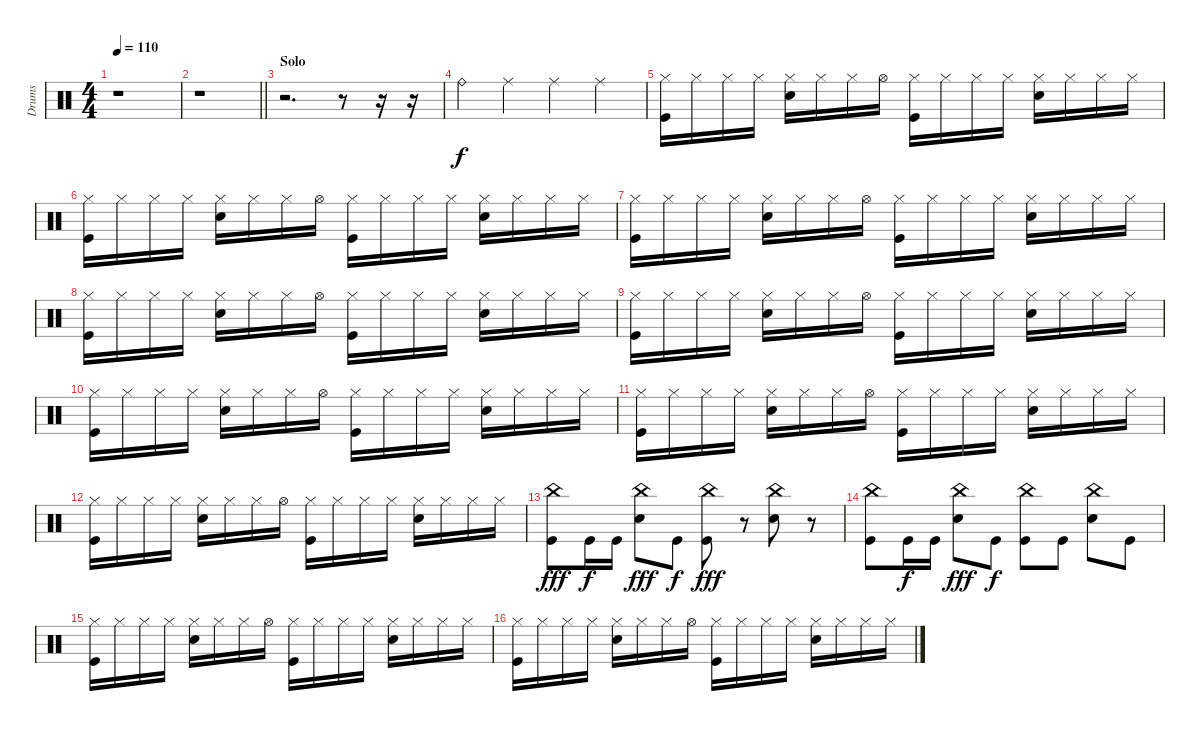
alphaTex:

\track ("Drums" "Drums") {instrument percussion}
\staff {score}
\articulation defaults
\ts (4 4)
\tempo 110
\clef neutral
\ks c
r.1{dy f} |
\barLineRight lightlight
r.1 |
\section ("" "Solo")
r.2{d} r.8 r.16 r.16 |
"Ride (bell)".4 "Ride (middle)".4 "Ride (middle)".4 "Ride (middle)".4 |
("Hi-Hat (closed)" "Kick (hit)").16 "Hi-Hat (closed)".16 "Hi-Hat (closed)".16 "Hi-Hat (closed)".16 ("Hi-Hat (closed)" "Snare (hit) 2").16 "Hi-Hat (closed)".16 "Hi-Hat (closed)".16 "Hi-Hat (open)".16 ("Hi-Hat (closed)" "Kick (hit)").16 "Hi-Hat (closed)".16 "Hi-Hat (closed)".16 "Hi-Hat (closed)".16 ("Hi-Hat (closed)" "Snare (hit) 2").16 "Hi-Hat (closed)".16 "Hi-Hat (closed)".16 "Hi-Hat (closed)".16 |
("Hi-Hat (closed)" "Kick (hit)").16 "Hi-Hat (closed)".16 "Hi-Hat (closed)".16 "Hi-Hat (closed)".16 ("Hi-Hat (closed)" "Snare (hit) 2").16 "Hi-Hat (closed)".16 "Hi-Hat (closed)".16 "Hi-Hat (open)".16 ("Hi-Hat (closed)" "Kick (hit)").16 "Hi-Hat (closed)".16 "Hi-Hat (closed)".16 "Hi-Hat (closed)".16 ("Hi-Hat (closed)" "Snare (hit) 2").16 "Hi-Hat (closed)".16 "Hi-Hat (closed)".16 "Hi-Hat (closed)".16 |
("Hi-Hat (closed)" "Kick (hit)").16 "Hi-Hat (closed)".16 "Hi-Hat (closed)".16 "Hi-Hat (closed)".16 ("Hi-Hat (closed)" "Snare (hit) 2").16 "Hi-Hat (closed)".16 "Hi-Hat (closed)".16 "Hi-Hat (open)".16 ("Hi-Hat (closed)" "Kick (hit)").16 "Hi-Hat (closed)".16 "Hi-Hat (closed)".16 "Hi-Hat (closed)".16 ("Hi-Hat (closed)" "Snare (hit) 2").16 "Hi-Hat (closed)".16 "Hi-Hat (closed)".16 "Hi-Hat (closed)".16 |
("Hi-Hat (closed)" "Kick (hit)").16 "Hi-Hat (closed)".16 "Hi-Hat (closed)".16 "Hi-Hat (closed)".16 ("Hi-Hat (closed)" "Snare (hit) 2").16 "Hi-Hat (closed)".16 "Hi-Hat (closed)".16 "Hi-Hat (open)".16 ("Hi-Hat (closed)" "Kick (hit)").16 "Hi-Hat (closed)".16 "Hi-Hat (closed)".16 "Hi-Hat (closed)".16 ("Hi-Hat (closed)" "Snare (hit) 2").16 "Hi-Hat (closed)".16 "Hi-Hat (closed)".16 "Hi-Hat (closed)".16 |
("Hi-Hat (closed)" "Kick (hit)").16 "Hi-Hat (closed)".16 "Hi-Hat (closed)".16 "Hi-Hat (closed)".16 ("Hi-Hat (closed)" "Snare (hit) 2").16 "Hi-Hat (closed)".16 "Hi-Hat (closed)".16 "Hi-Hat (open)".16 ("Hi-Hat (closed)" "Kick (hit)").16 "Hi-Hat (closed)".16 "Hi-Hat (closed)".16 "Hi-Hat (closed)".16 ("Hi-Hat (closed)" "Snare (hit) 2").16 "Hi-Hat (closed)".16 "Hi-Hat (closed)".16 "Hi-Hat (closed)".16 |
("Hi-Hat (closed)" "Kick (hit)").16 "Hi-Hat (closed)".16 "Hi-Hat (closed)".16 "Hi-Hat (closed)".16 ("Hi-Hat (closed)" "Snare (hit) 2").16 "Hi-Hat (closed)".16 "Hi-Hat (closed)".16 "Hi-Hat (open)".16 ("Hi-Hat (closed)" "Kick (hit)").16 "Hi-Hat (closed)".16 "Hi-Hat (closed)".16 "Hi-Hat (closed)".16 ("Hi-Hat (closed)" "Snare (hit) 2").16 "Hi-Hat (closed)".16 "Hi-Hat (closed)".16 "Hi-Hat (closed)".16 |
("Hi-Hat (closed)" "Kick (hit)").16 "Hi-Hat (closed)".16 "Hi-Hat (closed)".16 "Hi-Hat (closed)".16 ("Hi-Hat (closed)" "Snare (hit) 2").16 "Hi-Hat (closed)".16 "Hi-Hat (closed)".16 "Hi-Hat (open)".16 ("Hi-Hat (closed)" "Kick (hit)").16 "Hi-Hat (closed)".16 "Hi-Hat (closed)".16 "Hi-Hat (closed)".16 ("Hi-Hat (closed)" "Snare (hit) 2").16 "Hi-Hat (closed)".16 "Hi-Hat (closed)".16 "Hi-Hat (closed)".16 |
("Hi-Hat (closed)" "Kick (hit)").16 "Hi-Hat (closed)".16 "Hi-Hat (closed)".16 "Hi-Hat (closed)".16 ("Hi-Hat (closed)" "Snare (hit) 2").16 "Hi-Hat (closed)".16 "Hi-Hat (closed)".16 "Hi-Hat (open)".16 ("Hi-Hat (closed)" "Kick (hit)").16 "Hi-Hat (closed)".16 "Hi-Hat (closed)".16 "Hi-Hat (closed)".16 ("Hi-Hat (closed)" "Snare (hit) 2").16 "Hi-Hat (closed)".16 "Hi-Hat (closed)".16 "Hi-Hat (closed)".16 |
("China (hit)" "Kick (hit)").8{dy fff} "Kick (hit)".16{dy f} "Kick (hit)".16 ("China (hit)" "Snare (hit) 2").8{dy fff} "Kick (hit)".8{dy f} ("China (hit)" "Kick (hit)").8{dy fff} r.8 ("China (hit)" "Snare (hit) 2").8 r.8 |
("China (hit)" "Kick (hit)").8 "Kick (hit)".16{dy f} "Kick (hit)".16 ("China (hit)" "Snare (hit) 2").8{dy fff} "Kick (hit)".8{dy f} ("China (hit)" "Kick (hit)").8 "Kick (hit)".8 ("China (hit)" "Snare (hit) 2").8 "Kick (hit)".8 |
("Hi-Hat (closed)" "Kick (hit)").16 "Hi-Hat (closed)".16 "Hi-Hat (closed)".16 "Hi-Hat (closed)".16 ("Hi-Hat (closed)" "Snare (hit) 2").16 "Hi-Hat (closed)".16 "Hi-Hat (closed)".16 "Hi-Hat (open)".16 ("Hi-Hat (closed)" "Kick (hit)").16 "Hi-Hat (closed)".16 "Hi-Hat (closed)".16 "Hi-Hat (closed)".16 ("Hi-Hat (closed)" "Snare (hit) 2").16 "Hi-Hat (closed)".16 "Hi-Hat (closed)".16 "Hi-Hat (closed)".16 |
("Hi-Hat (closed)" "Kick (hit)").16 "Hi-Hat (closed)".16 "Hi-Hat (closed)".16 "Hi-Hat (closed)".16 ("Hi-Hat (closed)" "Snare (hit) 2").16 "Hi-Hat (closed)".16 "Hi-Hat (closed)".16 "Hi-Hat (open)".16 ("Hi-Hat (closed)" "Kick (hit)").16 "Hi-Hat (closed)".16 "Hi-Hat (closed)".16 "Hi-Hat (closed)".16 ("Hi-Hat (closed)" "Snare (hit) 2").16 "Hi-Hat (closed)".16 "Hi-Hat (closed)".16 "Hi-Hat (closed)".16
